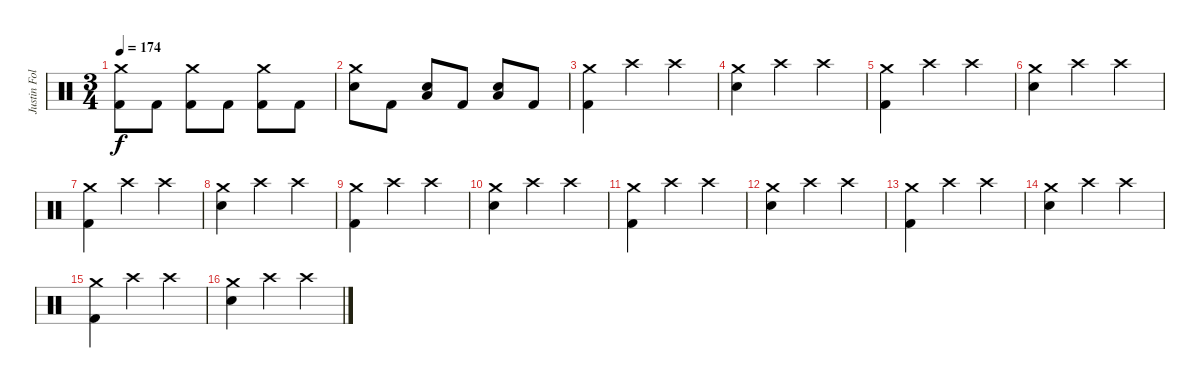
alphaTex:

\track ("Justin Foley" "Justin Fol") {instrument percussion}
\staff {score}
\articulation defaults
\ts (3 4)
\tempo 174
\clef neutral
\ks c
("Crash medium (hit)" "Kick (hit) 2").8{dy f} "Kick (hit) 2".8 ("Crash medium (hit)" "Kick (hit) 2").8 "Kick (hit) 2".8 ("Crash medium (hit)" "Kick (hit) 2").8 "Kick (hit) 2".8 |
("Crash medium (hit)" "Electric Snare (hit)").8 "Kick (hit) 2".8 ("Electric Snare (hit)" "Low Floor Tom (hit)").8 "Kick (hit) 2".8 ("Electric Snare (hit)" "Low Floor Tom (hit)").8 "Kick (hit) 2".8 |
("Crash medium (hit)" "Kick (hit) 2").4 "Crash high (hit)".4 "Crash high (hit)".4 |
("Crash medium (hit)" "Electric Snare (hit)").4 "Crash high (hit)".4 "Crash high (hit)".4 |
("Crash medium (hit)" "Kick (hit) 2").4 "Crash high (hit)".4 "Crash high (hit)".4 |
("Crash medium (hit)" "Electric Snare (hit)").4 "Crash high (hit)".4 "Crash high (hit)".4 |
("Crash medium (hit)" "Kick (hit) 2").4 "Crash high (hit)".4 "Crash high (hit)".4 |
("Crash medium (hit)" "Electric Snare (hit)").4 "Crash high (hit)".4 "Crash high (hit)".4 |
("Crash medium (hit)" "Kick (hit) 2").4 "Crash high (hit)".4 "Crash high (hit)".4 |
("Crash medium (hit)" "Electric Snare (hit)").4 "Crash high (hit)".4 "Crash high (hit)".4 |
("Crash medium (hit)" "Kick (hit) 2").4 "Crash high (hit)".4 "Crash high (hit)".4 |
("Crash medium (hit)" "Electric Snare (hit)").4 "Crash high (hit)".4 "Crash high (hit)".4 |
("Crash medium (hit)" "Kick (hit) 2").4 "Crash high (hit)".4 "Crash high (hit)".4 |
("Crash medium (hit)" "Electric Snare (hit)").4 "Crash high (hit)".4 "Crash high (hit)".4 |
("Crash medium (hit)" "Kick (hit) 2").4 "Crash high (hit)".4 "Crash high (hit)".4 |
("Crash medium (hit)" "Electric Snare (hit)").4 "Crash high (hit)".4 "Crash high (hit)".4
